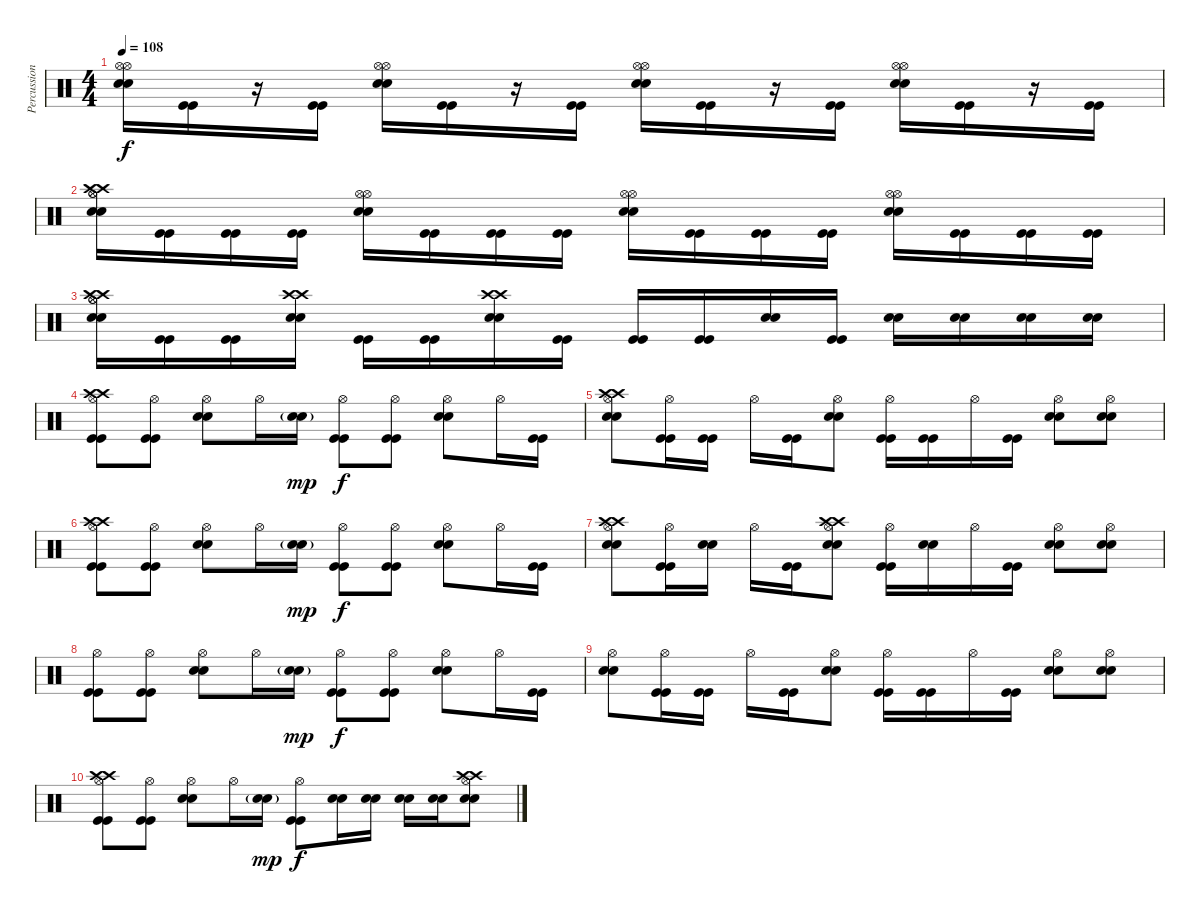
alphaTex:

\track ("Percussion" "Percussion") {instrument percussion}
\staff {score}
\articulation defaults
\ts (4 4)
\tempo 108
\clef neutral
\ks c
("Hi-Hat (open)" "Hi-Hat (open)" "Electric Snare (hit)" "Electric Snare (hit)").16{dy f} ("Kick (hit)" "Kick (hit)").16 r.16 ("Kick (hit)" "Kick (hit)").16 ("Hi-Hat (open)" "Hi-Hat (open)" "Electric Snare (hit)" "Electric Snare (hit)").16 ("Kick (hit)" "Kick (hit)").16 r.16 ("Kick (hit)" "Kick (hit)").16 ("Hi-Hat (open)" "Hi-Hat (open)" "Electric Snare (hit)" "Electric Snare (hit)").16 ("Kick (hit)" "Kick (hit)").16 r.16 ("Kick (hit)" "Kick (hit)").16 ("Hi-Hat (open)" "Hi-Hat (open)" "Electric Snare (hit)" "Electric Snare (hit)").16 ("Kick (hit)" "Kick (hit)").16 r.16 ("Kick (hit)" "Kick (hit)").16 |
("Hi-Hat (open)" "Hi-Hat (open)" "Electric Snare (hit)" "Electric Snare (hit)" "Crash high (hit)" "Crash high (hit)").16 ("Kick (hit)" "Kick (hit)").16 ("Kick (hit)" "Kick (hit)").16 ("Kick (hit)" "Kick (hit)").16 ("Hi-Hat (open)" "Hi-Hat (open)" "Electric Snare (hit)" "Electric Snare (hit)").16 ("Kick (hit)" "Kick (hit)").16 ("Kick (hit)" "Kick (hit)").16 ("Kick (hit)" "Kick (hit)").16 ("Hi-Hat (open)" "Hi-Hat (open)" "Electric Snare (hit)" "Electric Snare (hit)").16 ("Kick (hit)" "Kick (hit)").16 ("Kick (hit)" "Kick (hit)").16 ("Kick (hit)" "Kick (hit)").16 ("Hi-Hat (open)" "Hi-Hat (open)" "Electric Snare (hit)" "Electric Snare (hit)").16 ("Kick (hit)" "Kick (hit)").16 ("Kick (hit)" "Kick (hit)").16 ("Kick (hit)" "Kick (hit)").16 |
("Hi-Hat (open)" "Hi-Hat (open)" "Electric Snare (hit)" "Electric Snare (hit)" "Crash high (hit)" "Crash high (hit)").16 ("Kick (hit)" "Kick (hit)").16 ("Kick (hit)" "Kick (hit)").16 ("Electric Snare (hit)" "Electric Snare (hit)" "Crash high (hit)" "Crash high (hit)").16 ("Kick (hit)" "Kick (hit)").16 ("Kick (hit)" "Kick (hit)").16 ("Electric Snare (hit)" "Electric Snare (hit)" "Crash high (hit)" "Crash high (hit)").16 ("Kick (hit)" "Kick (hit)").16 ("Kick (hit)" "Kick (hit)").16 ("Kick (hit)" "Kick (hit)").16 ("Electric Snare (hit)" "Electric Snare (hit)").16 ("Kick (hit)" "Kick (hit)").16 ("Electric Snare (hit)" "Electric Snare (hit)").16 ("Electric Snare (hit)" "Electric Snare (hit)").16 ("Electric Snare (hit)" "Electric Snare (hit)").16 ("Electric Snare (hit)" "Electric Snare (hit)").16 |
("Hi-Hat (open)" "Kick (hit)" "Kick (hit)" "Crash high (hit)" "Crash high (hit)").8 ("Hi-Hat (open)" "Kick (hit)" "Kick (hit)").8 ("Hi-Hat (open)" "Electric Snare (hit)" "Electric Snare (hit)").8 "Hi-Hat (open)".16 ("Electric Snare (hit)"{g} "Electric Snare (hit)"{g}).16{dy mp} ("Hi-Hat (open)" "Kick (hit)" "Kick (hit)").8{dy f} ("Hi-Hat (open)" "Kick (hit)" "Kick (hit)").8 ("Hi-Hat (open)" "Electric Snare (hit)" "Electric Snare (hit)").8 "Hi-Hat (open)".16 ("Kick (hit)" "Kick (hit)").16 |
("Hi-Hat (open)" "Electric Snare (hit)" "Electric Snare (hit)" "Crash high (hit)" "Crash high (hit)").8 ("Hi-Hat (open)" "Kick (hit)" "Kick (hit)").16 ("Kick (hit)" "Kick (hit)").16 "Hi-Hat (open)".16 ("Kick (hit)" "Kick (hit)").16 ("Hi-Hat (open)" "Electric Snare (hit)" "Electric Snare (hit)").8 ("Hi-Hat (open)" "Kick (hit)" "Kick (hit)").16 ("Kick (hit)" "Kick (hit)").16 "Hi-Hat (open)".16 ("Kick (hit)" "Kick (hit)").16 ("Hi-Hat (open)" "Electric Snare (hit)" "Electric Snare (hit)").8 ("Hi-Hat (open)" "Electric Snare (hit)" "Electric Snare (hit)").8 |
("Hi-Hat (open)" "Kick (hit)" "Kick (hit)" "Crash high (hit)" "Crash high (hit)").8 ("Hi-Hat (open)" "Kick (hit)" "Kick (hit)").8 ("Hi-Hat (open)" "Electric Snare (hit)" "Electric Snare (hit)").8 "Hi-Hat (open)".16 ("Electric Snare (hit)"{g} "Electric Snare (hit)"{g}).16{dy mp} ("Hi-Hat (open)" "Kick (hit)" "Kick (hit)").8{dy f} ("Hi-Hat (open)" "Kick (hit)" "Kick (hit)").8 ("Hi-Hat (open)" "Electric Snare (hit)" "Electric Snare (hit)").8 "Hi-Hat (open)".16 ("Kick (hit)" "Kick (hit)").16 |
("Hi-Hat (open)" "Electric Snare (hit)" "Electric Snare (hit)" "Crash high (hit)" "Crash high (hit)").8 ("Hi-Hat (open)" "Kick (hit)" "Kick (hit)").16 ("Electric Snare (hit)" "Electric Snare (hit)").16 "Hi-Hat (open)".16 ("Kick (hit)" "Kick (hit)").16 ("Hi-Hat (open)" "Electric Snare (hit)" "Electric Snare (hit)" "Crash high (hit)" "Crash high (hit)").8 ("Hi-Hat (open)" "Kick (hit)" "Kick (hit)").16 ("Electric Snare (hit)" "Electric Snare (hit)").16 "Hi-Hat (open)".16 ("Kick (hit)" "Kick (hit)").16 ("Hi-Hat (open)" "Electric Snare (hit)" "Electric Snare (hit)").8 ("Hi-Hat (open)" "Electric Snare (hit)" "Electric Snare (hit)").8 |
("Hi-Hat (open)" "Kick (hit)" "Kick (hit)").8 ("Hi-Hat (open)" "Kick (hit)" "Kick (hit)").8 ("Hi-Hat (open)" "Electric Snare (hit)" "Electric Snare (hit)").8 "Hi-Hat (open)".16 ("Electric Snare (hit)"{g} "Electric Snare (hit)"{g}).16{dy mp} ("Hi-Hat (open)" "Kick (hit)" "Kick (hit)").8{dy f} ("Hi-Hat (open)" "Kick (hit)" "Kick (hit)").8 ("Hi-Hat (open)" "Electric Snare (hit)" "Electric Snare (hit)").8 "Hi-Hat (open)".16 ("Kick (hit)" "Kick (hit)").16 |
("Hi-Hat (open)" "Electric Snare (hit)" "Electric Snare (hit)").8 ("Hi-Hat (open)" "Kick (hit)" "Kick (hit)").16 ("Kick (hit)" "Kick (hit)").16 "Hi-Hat (open)".16 ("Kick (hit)" "Kick (hit)").16 ("Hi-Hat (open)" "Electric Snare (hit)" "Electric Snare (hit)").8 ("Hi-Hat (open)" "Kick (hit)" "Kick (hit)").16 ("Kick (hit)" "Kick (hit)").16 "Hi-Hat (open)".16 ("Kick (hit)" "Kick (hit)").16 ("Hi-Hat (open)" "Electric Snare (hit)" "Electric Snare (hit)").8 ("Hi-Hat (open)" "Electric Snare (hit)" "Electric Snare (hit)").8 |
("Hi-Hat (open)" "Kick (hit)" "Kick (hit)" "Crash high (hit)" "Crash high (hit)").8 ("Hi-Hat (open)" "Kick (hit)" "Kick (hit)").8 ("Hi-Hat (open)" "Electric Snare (hit)" "Electric Snare (hit)").8 "Hi-Hat (open)".16 ("Electric Snare (hit)"{g} "Electric Snare (hit)"{g}).16{dy mp} ("Hi-Hat (open)" "Kick (hit)" "Kick (hit)").8{dy f} ("Electric Snare (hit)" "Electric Snare (hit)").16 ("Electric Snare (hit)" "Electric Snare (hit)").16 ("Electric Snare (hit)" "Electric Snare (hit)").16 ("Electric Snare (hit)" "Electric Snare (hit)").16 ("Hi-Hat (open)" "Electric Snare (hit)" "Electric Snare (hit)" "Crash high (hit)" "Crash high (hit)").8
